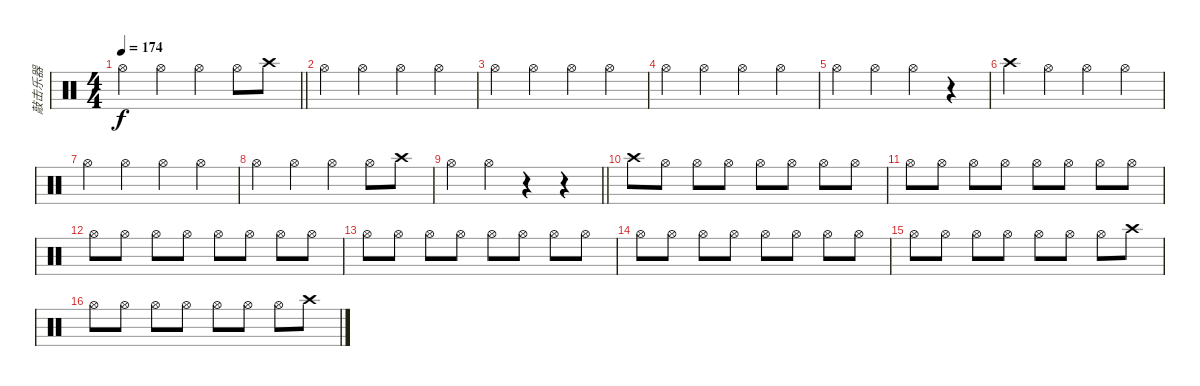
\track ("敲击乐器" "敲击乐器") {instrument percussion}
\staff {score}
\articulation defaults
\ts (4 4)
\tempo 174
\clef neutral
\barLineRight lightlight
\ks c "Hi-Hat (open)".4{dy f} "Hi-Hat (open)".4 "Hi-Hat (open)".4 "Hi-Hat (open)".8 "Crash high (hit)".8
|
"Hi-Hat (open)".4 "Hi-Hat (open)".4 "Hi-Hat (open)".4 "Hi-Hat (open)".4 |
"Hi-Hat (open)".4 "Hi-Hat (open)".4 "Hi-Hat (open)".4 "Hi-Hat (open)".4 |
"Hi-Hat (open)".4 "Hi-Hat (open)".4 "Hi-Hat (open)".4 "Hi-Hat (open)".4 |
"Hi-Hat (open)".4 "Hi-Hat (open)".4 "Hi-Hat (open)".4 r.4 |
"Crash high (hit)".4 "Hi-Hat (open)".4 "Hi-Hat (open)".4 "Hi-Hat (open)".4 |
"Hi-Hat (open)".4 "Hi-Hat (open)".4 "Hi-Hat (open)".4 "Hi-Hat (open)".4 |
"Hi-Hat (open)".4 "Hi-Hat (open)".4 "Hi-Hat (open)".4 "Hi-Hat (open)".8 "Crash high (hit)".8 |
\barLineRight lightlight "Hi-Hat (open)".4 "Hi-Hat (open)".4
r.4 r.4 |
"Crash high (hit)".8 "Hi-Hat (open)".8 "Hi-Hat (open)".8 "Hi-Hat (open)".8 "Hi-Hat (open)".8 "Hi-Hat (open)".8 "Hi-Hat (open)".8 "Hi-Hat (open)".8 |
"Hi-Hat (open)".8 "Hi-Hat (open)".8 "Hi-Hat (open)".8 "Hi-Hat (open)".8 "Hi-Hat (open)".8 "Hi-Hat (open)".8 "Hi-Hat (open)".8 "Hi-Hat (open)".8 |
"Hi-Hat (open)".8 "Hi-Hat (open)".8 "Hi-Hat (open)".8 "Hi-Hat (open)".8 "Hi-Hat (open)".8 "Hi-Hat (open)".8 "Hi-Hat (open)".8 "Hi-Hat (open)".8 |
"Hi-Hat (open)".8 "Hi-Hat (open)".8 "Hi-Hat (open)".8 "Hi-Hat (open)".8 "Hi-Hat (open)".8 "Hi-Hat (open)".8 "Hi-Hat (open)".8 "Hi-Hat (open)".8 |
"Hi-Hat (open)".8 "Hi-Hat (open)".8 "Hi-Hat (open)".8 "Hi-Hat (open)".8 "Hi-Hat (open)".8 "Hi-Hat (open)".8 "Hi-Hat (open)".8 "Hi-Hat (open)".8 |
"Hi-Hat (open)".8 "Hi-Hat (open)".8 "Hi-Hat (open)".8 "Hi-Hat (open)".8 "Hi-Hat (open)".8 "Hi-Hat (open)".8 "Hi-Hat (open)".8 "Crash high (hit)".8 |
"Hi-Hat (open)".8 "Hi-Hat (open)".8 "Hi-Hat (open)".8 "Hi-Hat (open)".8 "Hi-Hat (open)".8 "Hi-Hat (open)".8 "Hi-Hat (open)".8 "Crash high (hit)".8
